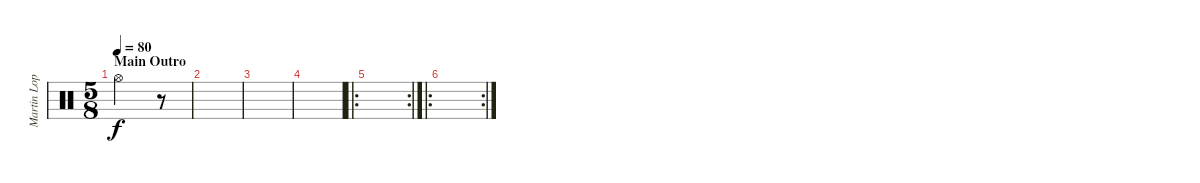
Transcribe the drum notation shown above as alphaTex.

\track ("Martin Lopez" "Martin Lop") {instrument percussion}
\staff {score}
\articulation defaults
\ts (5 8)
\section ("" "Main Outro")
\tempo 80
\clef neutral
\ks c "Hi-Hat (open)".2{dy f}
r.8 |
|
|
|
\ro
\rc 2
|
\ro
\rc 2
